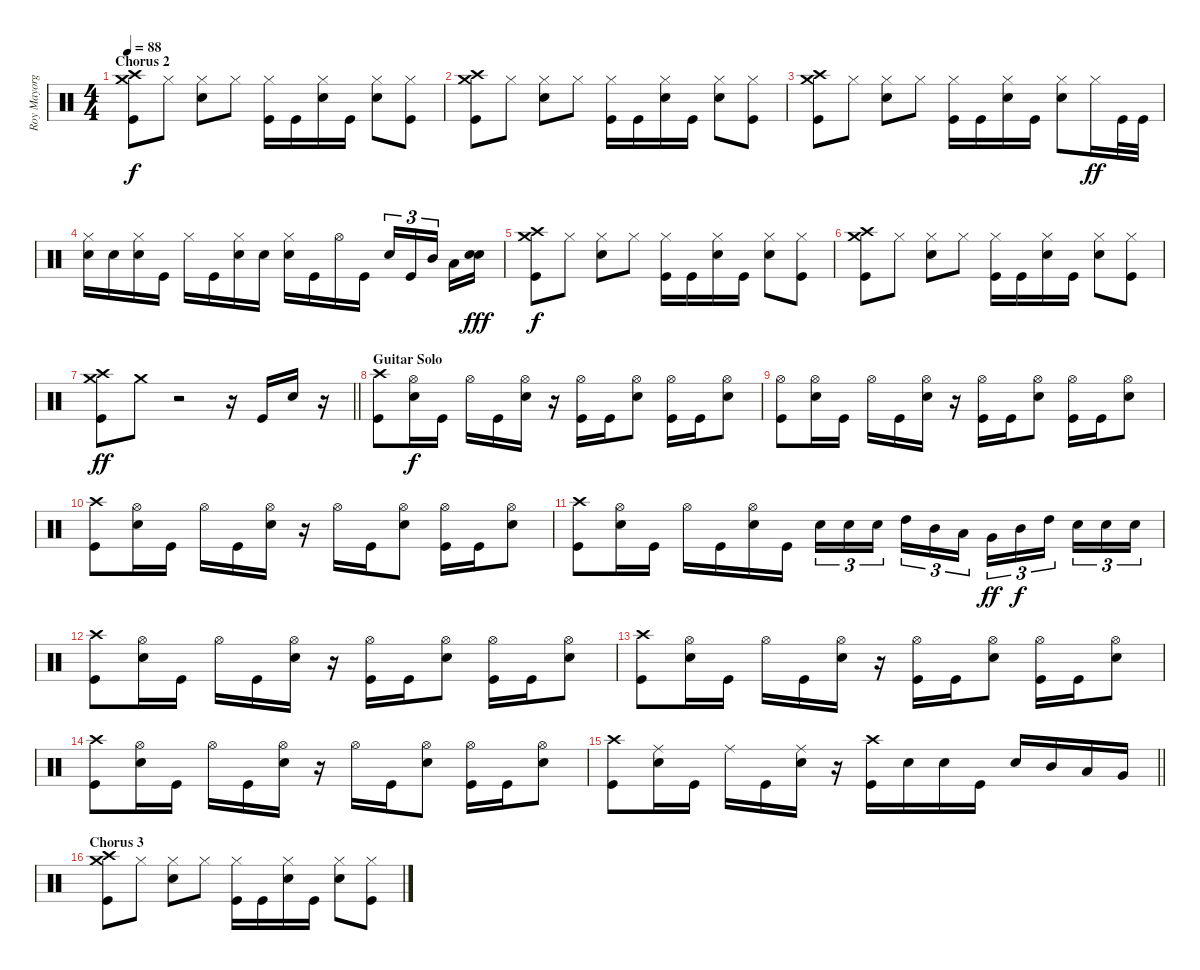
\track ("Roy Mayorga" "Roy Mayorg") {instrument percussion}
\staff {score}
\articulation defaults
\ts (4 4)
\section ("" "Chorus 2")
\tempo 88
\clef neutral
\ks c
("Crash medium (hit)" "Crash high (hit)" "Kick (hit)").8{dy f} "Hi-Hat (closed)".8 ("Hi-Hat (closed)" "Snare (hit) 2").8 "Hi-Hat (closed)".8 ("Hi-Hat (closed)" "Kick (hit)").16 "Kick (hit)".16 ("Hi-Hat (closed)" "Snare (hit) 2").16 "Kick (hit)".16 ("Hi-Hat (closed)" "Snare (hit) 2").8 ("Hi-Hat (closed)" "Kick (hit)").8 |
("Crash medium (hit)" "Crash high (hit)" "Kick (hit)").8 "Hi-Hat (closed)".8 ("Hi-Hat (closed)" "Snare (hit) 2").8 "Hi-Hat (closed)".8 ("Hi-Hat (closed)" "Kick (hit)").16 "Kick (hit)".16 ("Hi-Hat (closed)" "Snare (hit) 2").16 "Kick (hit)".16 ("Hi-Hat (closed)" "Snare (hit) 2").8 ("Hi-Hat (closed)" "Kick (hit)").8 |
("Crash medium (hit)" "Crash high (hit)" "Kick (hit)").8 "Hi-Hat (closed)".8 ("Hi-Hat (closed)" "Snare (hit) 2").8 "Hi-Hat (closed)".8 ("Hi-Hat (closed)" "Kick (hit)").16 "Kick (hit)".16 ("Hi-Hat (closed)" "Snare (hit) 2").16 "Kick (hit)".16 ("Hi-Hat (closed)" "Snare (hit) 2").8 "Hi-Hat (closed)".16{dy ff} "Kick (hit)".32 "Kick (hit)".32 |
("Hi-Hat (closed)" "Snare (hit) 2").16 "Snare (hit) 2".16 ("Hi-Hat (closed)" "Snare (hit) 2").16 "Kick (hit)".16 "Hi-Hat (closed)".16 "Kick (hit)".16 ("Hi-Hat (closed)" "Snare (hit) 2").16 "Snare (hit) 2".16 ("Hi-Hat (closed)" "Snare (hit) 2").16 "Kick (hit)".16 "Hi-Hat (open)".16 "Kick (hit)".16 "Snare (hit) 2".16{tu (3 2)} "Kick (hit)".16{tu (3 2)} "Mid Tom (hit)".16{tu (3 2) beam splitsecondary} "Low Tom (hit)".16 ("Snare (hit) 2" "Snare (hit) 2").16{dy fff} |
("Crash medium (hit)" "Crash high (hit)" "Kick (hit)").8{dy f} "Hi-Hat (closed)".8 ("Hi-Hat (closed)" "Snare (hit) 2").8 "Hi-Hat (closed)".8 ("Hi-Hat (closed)" "Kick (hit)").16 "Kick (hit)".16 ("Hi-Hat (closed)" "Snare (hit) 2").16 "Kick (hit)".16 ("Hi-Hat (closed)" "Snare (hit) 2").8 ("Hi-Hat (closed)" "Kick (hit)").8 |
("Crash medium (hit)" "Crash high (hit)" "Kick (hit)").8 "Hi-Hat (closed)".8 ("Hi-Hat (closed)" "Snare (hit) 2").8 "Hi-Hat (closed)".8 ("Hi-Hat (closed)" "Kick (hit)").16 "Kick (hit)".16 ("Hi-Hat (closed)" "Snare (hit) 2").16 "Kick (hit)".16 ("Hi-Hat (closed)" "Snare (hit) 2").8 ("Hi-Hat (closed)" "Kick (hit)").8 |
\barLineRight lightlight
("Crash medium (hit)" "Crash high (hit)" "Kick (hit)").8{dy ff} "Crash medium (hit)".8 r.2 r.16 "Kick (hit)".16 "Snare (hit) 2".16 r.16 |
\section ("" "Guitar Solo")
("Crash high (hit)" "Kick (hit)").8 ("Hi-Hat (open)" "Snare (hit) 2").16{dy f} "Kick (hit)".16 "Hi-Hat (open)".16 "Kick (hit)".16 ("Hi-Hat (open)" "Snare (hit) 2").16 r.16 ("Hi-Hat (open)" "Kick (hit)").16 "Kick (hit)".16 ("Hi-Hat (open)" "Snare (hit) 2").8 ("Hi-Hat (open)" "Kick (hit)").16 "Kick (hit)".16 ("Hi-Hat (open)" "Snare (hit) 2").8 |
("Hi-Hat (open)" "Kick (hit)").8 ("Hi-Hat (open)" "Snare (hit) 2").16 "Kick (hit)".16 "Hi-Hat (open)".16 "Kick (hit)".16 ("Hi-Hat (open)" "Snare (hit) 2").16 r.16 ("Hi-Hat (open)" "Kick (hit)").16 "Kick (hit)".16 ("Hi-Hat (open)" "Snare (hit) 2").8 ("Hi-Hat (open)" "Kick (hit)").16 "Kick (hit)".16 ("Hi-Hat (open)" "Snare (hit) 2").8 |
("Crash high (hit)" "Kick (hit)").8 ("Hi-Hat (open)" "Snare (hit) 2").16 "Kick (hit)".16 "Hi-Hat (open)".16 "Kick (hit)".16 ("Hi-Hat (open)" "Snare (hit) 2").16 r.16 "Hi-Hat (open)".16 "Kick (hit)".16 ("Hi-Hat (open)" "Snare (hit) 2").8 ("Hi-Hat (open)" "Kick (hit)").16 "Kick (hit)".16 ("Hi-Hat (open)" "Snare (hit) 2").8 |
("Crash high (hit)" "Kick (hit)").8 ("Hi-Hat (open)" "Snare (hit) 2").16 "Kick (hit)".16 "Hi-Hat (open)".16 "Kick (hit)".16 ("Hi-Hat (open)" "Snare (hit) 2").16 "Kick (hit)".16 "Snare (hit) 2".16{tu (3 2)} "Snare (hit) 2".16{tu (3 2)} "Snare (hit) 2".16{tu (3 2) beam splitsecondary} "High Tom (hit)".16{tu (3 2)} "Mid Tom (hit)".16{tu (3 2)} "Low Tom (hit)".16{tu (3 2)} "Very Low Tom (hit)".16{tu (3 2) dy ff} "Mid Tom (hit)".16{tu (3 2) dy f} "High Tom (hit)".16{tu (3 2) beam splitsecondary} "Snare (hit) 2".16{tu (3 2)} "Snare (hit) 2".16{tu (3 2)} "Snare (hit) 2".16{tu (3 2)} |
("Crash high (hit)" "Kick (hit)").8 ("Hi-Hat (open)" "Snare (hit) 2").16 "Kick (hit)".16 "Hi-Hat (open)".16 "Kick (hit)".16 ("Hi-Hat (open)" "Snare (hit) 2").16 r.16 ("Hi-Hat (open)" "Kick (hit)").16 "Kick (hit)".16 ("Hi-Hat (open)" "Snare (hit) 2").8 ("Hi-Hat (open)" "Kick (hit)").16 "Kick (hit)".16 ("Hi-Hat (open)" "Snare (hit) 2").8 |
("Crash high (hit)" "Kick (hit)").8 ("Hi-Hat (open)" "Snare (hit) 2").16 "Kick (hit)".16 "Hi-Hat (open)".16 "Kick (hit)".16 ("Hi-Hat (open)" "Snare (hit) 2").16 r.16 ("Hi-Hat (open)" "Kick (hit)").16 "Kick (hit)".16 ("Hi-Hat (open)" "Snare (hit) 2").8 ("Hi-Hat (open)" "Kick (hit)").16 "Kick (hit)".16 ("Hi-Hat (open)" "Snare (hit) 2").8 |
("Crash high (hit)" "Kick (hit)").8 ("Hi-Hat (open)" "Snare (hit) 2").16 "Kick (hit)".16 "Hi-Hat (open)".16 "Kick (hit)".16 ("Hi-Hat (open)" "Snare (hit) 2").16 r.16 "Hi-Hat (open)".16 "Kick (hit)".16 ("Hi-Hat (open)" "Snare (hit) 2").8 ("Hi-Hat (open)" "Kick (hit)").16 "Kick (hit)".16 ("Hi-Hat (open)" "Snare (hit) 2").8 |
\barLineRight lightlight
("Crash high (hit)" "Kick (hit)").8 ("Ride (middle)" "Snare (hit) 2").16 "Kick (hit)".16 "Ride (middle)".16 "Kick (hit)".16 ("Ride (middle)" "Snare (hit) 2").16 r.16 ("Crash high (hit)" "Kick (hit)").16 "Snare (hit) 2".16 "Snare (hit) 2".16 "Kick (hit)".16 "Snare (hit) 2".16 "Mid Tom (hit)".16 "Low Tom (hit)".16 "Very Low Tom (hit)".16 |
\section ("" "Chorus 3")
("Crash medium (hit)" "Crash high (hit)" "Kick (hit)").8 "Hi-Hat (closed)".8 ("Hi-Hat (closed)" "Snare (hit) 2").8 "Hi-Hat (closed)".8 ("Hi-Hat (closed)" "Kick (hit)").16 "Kick (hit)".16 ("Hi-Hat (closed)" "Snare (hit) 2").16 "Kick (hit)".16 ("Hi-Hat (closed)" "Snare (hit) 2").8 ("Hi-Hat (closed)" "Kick (hit)").8
